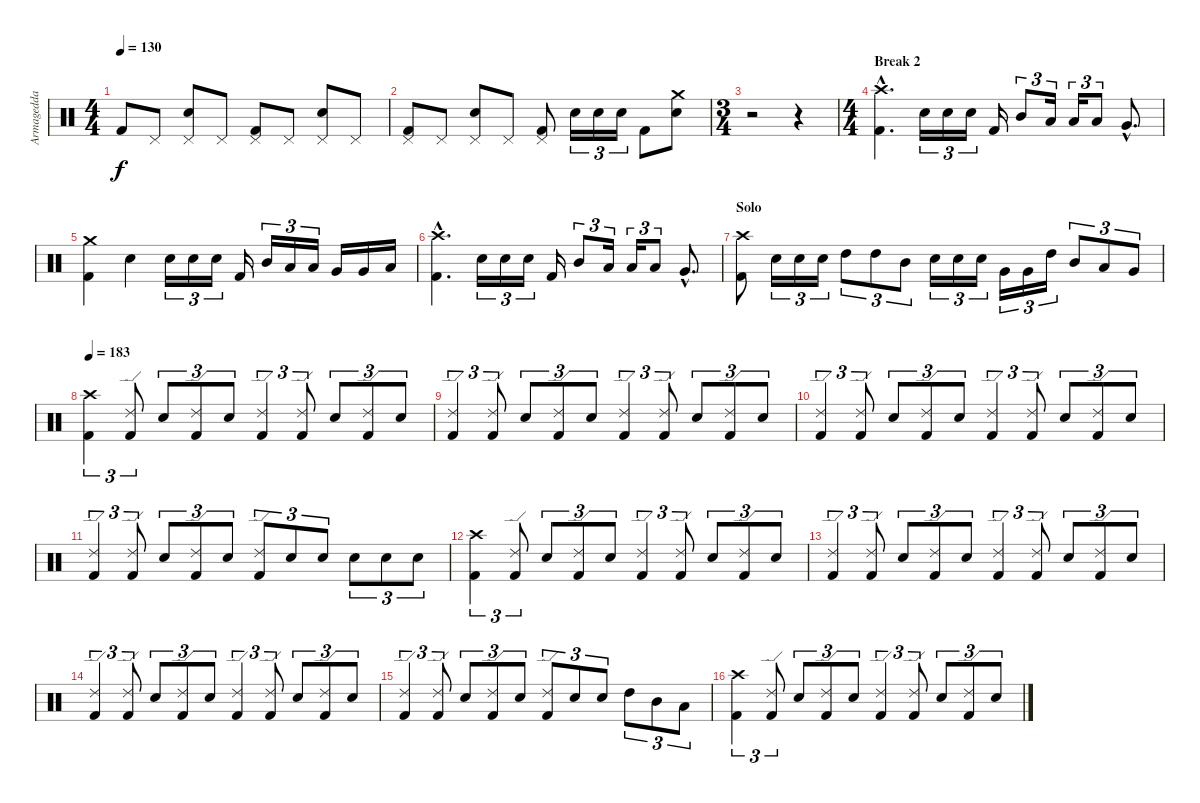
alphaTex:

\track ("Armagedda" "Armagedda") {instrument percussion}
\staff {score}
\articulation defaults
\ts (4 4)
\tempo 130
\clef neutral
\ks c "Kick (hit) 2".8{dy f} "Pedal Hi-Hat (hit)".8
("Pedal Hi-Hat (hit)" "Electric Snare (hit)").8 "Pedal Hi-Hat (hit)".8 ("Pedal Hi-Hat (hit)" "Kick (hit) 2").8 "Pedal Hi-Hat (hit)".8 ("Pedal Hi-Hat (hit)" "Electric Snare (hit)").8 "Pedal Hi-Hat (hit)".8 |
("Pedal Hi-Hat (hit)" "Kick (hit) 2").8 "Pedal Hi-Hat (hit)".8 ("Pedal Hi-Hat (hit)" "Electric Snare (hit)").8 "Pedal Hi-Hat (hit)".8 ("Pedal Hi-Hat (hit)" "Kick (hit) 2").8 "Electric Snare (hit)".16{tu (3 2)} "Electric Snare (hit)".16{tu (3 2)} "Electric Snare (hit)".16{tu (3 2)} "Kick (hit) 2".8 ("Crash medium (hit)" "Electric Snare (hit)").8 |
\ts (3 4)
r.2 r.4 |
\ts (4 4)
\section ("" "Break 2 ")
("Crash high (hit)"{hac} "Kick (hit) 2"{hac}).4{d} "Electric Snare (hit)".16{tu (3 2)} "Electric Snare (hit)".16{tu (3 2)} "Electric Snare (hit)".16{tu (3 2)} "Kick (hit) 2".16 "Mid Tom (hit)".8{tu (3 2)} "Low Tom (hit)".16{tu (3 2)} "Low Tom (hit)".16{tu (3 2)} "Low Tom (hit)".8{tu (3 2)} "Very Low Tom (hit)"{hac}.8{d} |
("Crash medium (hit)" "Kick (hit) 2").4 "Electric Snare (hit)".4 "Electric Snare (hit)".16{tu (3 2)} "Electric Snare (hit)".16{tu (3 2)} "Electric Snare (hit)".16{tu (3 2)} "Kick (hit) 2".16 "Mid Tom (hit)".16{tu (3 2)} "Low Tom (hit)".16{tu (3 2)} "Low Tom (hit)".16{tu (3 2)} "Very Low Tom (hit)".16 "Very Low Tom (hit)".16 "Low Floor Tom (hit)".16 |
("Crash high (hit)"{hac} "Kick (hit) 2"{hac}).4{d} "Electric Snare (hit)".16{tu (3 2)} "Electric Snare (hit)".16{tu (3 2)} "Electric Snare (hit)".16{tu (3 2)} "Kick (hit) 2".16 "Mid Tom (hit)".8{tu (3 2)} "Low Tom (hit)".16{tu (3 2)} "Low Tom (hit)".16{tu (3 2)} "Low Tom (hit)".8{tu (3 2)} "Very Low Tom (hit)"{hac}.8{d} |
\section ("" "Solo")
("Crash high (hit)" "Kick (hit) 2").8 "Electric Snare (hit)".16{tu (3 2)} "Electric Snare (hit)".16{tu (3 2)} "Electric Snare (hit)".16{tu (3 2)} "High Tom (hit)".8{tu (3 2)} "High Tom (hit)".8{tu (3 2)} "Mid Tom (hit)".8{tu (3 2)} "Electric Snare (hit)".16{tu (3 2)} "Electric Snare (hit)".16{tu (3 2)} "Electric Snare (hit)".16{tu (3 2)} "Very Low Tom (hit)".16{tu (3 2)} "Very Low Tom (hit)".16{tu (3 2)} "High Tom (hit)".16{tu (3 2)} "Mid Tom (hit)".8{tu (3 2)} "Low Tom (hit)".8{tu (3 2)} "Very Low Tom (hit)".8{tu (3 2)} |
\tempo 183
("Crash high (hit)" "Kick (hit) 2").4{tu (3 2)} ("Ride (edge) 2" "Kick (hit) 2").8{tu (3 2)} "Electric Snare (hit)".8{tu (3 2)} ("Ride (edge) 2" "Kick (hit) 2").8{tu (3 2)} "Electric Snare (hit)".8{tu (3 2)} ("Ride (edge) 2" "Kick (hit) 2").4{tu (3 2)} ("Ride (edge) 2" "Kick (hit) 2").8{tu (3 2)} "Electric Snare (hit)".8{tu (3 2)} ("Ride (edge) 2" "Kick (hit) 2").8{tu (3 2)} "Electric Snare (hit)".8{tu (3 2)} |
("Ride (edge) 2" "Kick (hit) 2").4{tu (3 2)} ("Ride (edge) 2" "Kick (hit) 2").8{tu (3 2)} "Electric Snare (hit)".8{tu (3 2)} ("Ride (edge) 2" "Kick (hit) 2").8{tu (3 2)} "Electric Snare (hit)".8{tu (3 2)} ("Ride (edge) 2" "Kick (hit) 2").4{tu (3 2)} ("Ride (edge) 2" "Kick (hit) 2").8{tu (3 2)} "Electric Snare (hit)".8{tu (3 2)} ("Ride (edge) 2" "Kick (hit) 2").8{tu (3 2)} "Electric Snare (hit)".8{tu (3 2)} |
("Ride (edge) 2" "Kick (hit) 2").4{tu (3 2)} ("Ride (edge) 2" "Kick (hit) 2").8{tu (3 2)} "Electric Snare (hit)".8{tu (3 2)} ("Ride (edge) 2" "Kick (hit) 2").8{tu (3 2)} "Electric Snare (hit)".8{tu (3 2)} ("Ride (edge) 2" "Kick (hit) 2").4{tu (3 2)} ("Ride (edge) 2" "Kick (hit) 2").8{tu (3 2)} "Electric Snare (hit)".8{tu (3 2)} ("Ride (edge) 2" "Kick (hit) 2").8{tu (3 2)} "Electric Snare (hit)".8{tu (3 2)} |
("Ride (edge) 2" "Kick (hit) 2").4{tu (3 2)} ("Ride (edge) 2" "Kick (hit) 2").8{tu (3 2)} "Electric Snare (hit)".8{tu (3 2)} ("Ride (edge) 2" "Kick (hit) 2").8{tu (3 2)} "Electric Snare (hit)".8{tu (3 2)} ("Ride (edge) 2" "Kick (hit) 2").8{tu (3 2)} "Electric Snare (hit)".8{tu (3 2)} "Electric Snare (hit)".8{tu (3 2)} "Electric Snare (hit)".8{tu (3 2)} "Electric Snare (hit)".8{tu (3 2)} "Electric Snare (hit)".8{tu (3 2)} |
("Crash high (hit)" "Kick (hit) 2").4{tu (3 2)} ("Ride (edge) 2" "Kick (hit) 2").8{tu (3 2)} "Electric Snare (hit)".8{tu (3 2)} ("Ride (edge) 2" "Kick (hit) 2").8{tu (3 2)} "Electric Snare (hit)".8{tu (3 2)} ("Ride (edge) 2" "Kick (hit) 2").4{tu (3 2)} ("Ride (edge) 2" "Kick (hit) 2").8{tu (3 2)} "Electric Snare (hit)".8{tu (3 2)} ("Ride (edge) 2" "Kick (hit) 2").8{tu (3 2)} "Electric Snare (hit)".8{tu (3 2)} |
("Ride (edge) 2" "Kick (hit) 2").4{tu (3 2)} ("Ride (edge) 2" "Kick (hit) 2").8{tu (3 2)} "Electric Snare (hit)".8{tu (3 2)} ("Ride (edge) 2" "Kick (hit) 2").8{tu (3 2)} "Electric Snare (hit)".8{tu (3 2)} ("Ride (edge) 2" "Kick (hit) 2").4{tu (3 2)} ("Ride (edge) 2" "Kick (hit) 2").8{tu (3 2)} "Electric Snare (hit)".8{tu (3 2)} ("Ride (edge) 2" "Kick (hit) 2").8{tu (3 2)} "Electric Snare (hit)".8{tu (3 2)} |
("Ride (edge) 2" "Kick (hit) 2").4{tu (3 2)} ("Ride (edge) 2" "Kick (hit) 2").8{tu (3 2)} "Electric Snare (hit)".8{tu (3 2)} ("Ride (edge) 2" "Kick (hit) 2").8{tu (3 2)} "Electric Snare (hit)".8{tu (3 2)} ("Ride (edge) 2" "Kick (hit) 2").4{tu (3 2)} ("Ride (edge) 2" "Kick (hit) 2").8{tu (3 2)} "Electric Snare (hit)".8{tu (3 2)} ("Ride (edge) 2" "Kick (hit) 2").8{tu (3 2)} "Electric Snare (hit)".8{tu (3 2)} |
("Ride (edge) 2" "Kick (hit) 2").4{tu (3 2)} ("Ride (edge) 2" "Kick (hit) 2").8{tu (3 2)} "Electric Snare (hit)".8{tu (3 2)} ("Ride (edge) 2" "Kick (hit) 2").8{tu (3 2)} "Electric Snare (hit)".8{tu (3 2)} ("Ride (edge) 2" "Kick (hit) 2").8{tu (3 2)} "Electric Snare (hit)".8{tu (3 2)} "Electric Snare (hit)".8{tu (3 2)} "High Tom (hit)".8{tu (3 2)} "Mid Tom (hit)".8{tu (3 2)} "Low Tom (hit)".8{tu (3 2)} |
("Crash high (hit)" "Kick (hit) 2").4{tu (3 2)} ("Ride (edge) 2" "Kick (hit) 2").8{tu (3 2)} "Electric Snare (hit)".8{tu (3 2)} ("Ride (edge) 2" "Kick (hit) 2").8{tu (3 2)} "Electric Snare (hit)".8{tu (3 2)} ("Ride (edge) 2" "Kick (hit) 2").4{tu (3 2)} ("Ride (edge) 2" "Kick (hit) 2").8{tu (3 2)} "Electric Snare (hit)".8{tu (3 2)} ("Ride (edge) 2" "Kick (hit) 2").8{tu (3 2)} "Electric Snare (hit)".8{tu (3 2)}
